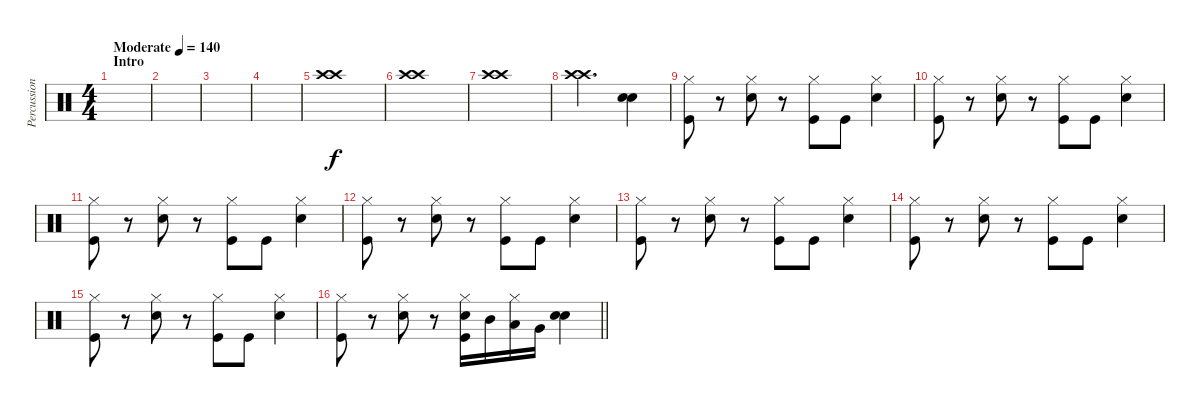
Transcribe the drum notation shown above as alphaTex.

\track ("Percussioni" "Percussion") {instrument percussion}
\staff {score}
\articulation defaults
\ts (4 4)
\section ("" "Intro")
\tempo (140 "Moderate")
\clef neutral
\ks c
|
|
|
|
("Crash high (hit)" "Crash high (hit)").1 |
("Crash high (hit)" "Crash high (hit)").1 |
("Crash high (hit)" "Crash high (hit)").1 |
("Crash high (hit)" "Crash high (hit)").2{d} ("Snare (hit) 2" "Snare (hit) 2").4 |
("Hi-Hat (closed)" "Kick (hit)").8 r.8 ("Hi-Hat (closed)" "Snare (hit) 2").8 r.8 ("Hi-Hat (closed)" "Kick (hit)").8 "Kick (hit)".8 ("Hi-Hat (closed)" "Snare (hit) 2").4 |
("Hi-Hat (closed)" "Kick (hit)").8 r.8 ("Hi-Hat (closed)" "Snare (hit) 2").8 r.8 ("Hi-Hat (closed)" "Kick (hit)").8 "Kick (hit)".8 ("Hi-Hat (closed)" "Snare (hit) 2").4 |
("Hi-Hat (closed)" "Kick (hit)").8 r.8 ("Hi-Hat (closed)" "Snare (hit) 2").8 r.8 ("Hi-Hat (closed)" "Kick (hit)").8 "Kick (hit)".8 ("Hi-Hat (closed)" "Snare (hit) 2").4 |
("Hi-Hat (closed)" "Kick (hit)").8 r.8 ("Hi-Hat (closed)" "Snare (hit) 2").8 r.8 ("Hi-Hat (closed)" "Kick (hit)").8 "Kick (hit)".8 ("Hi-Hat (closed)" "Snare (hit) 2").4 |
("Hi-Hat (closed)" "Kick (hit)").8 r.8 ("Hi-Hat (closed)" "Snare (hit) 2").8 r.8 ("Hi-Hat (closed)" "Kick (hit)").8 "Kick (hit)".8 ("Hi-Hat (closed)" "Snare (hit) 2").4 |
("Hi-Hat (closed)" "Kick (hit)").8 r.8 ("Hi-Hat (closed)" "Snare (hit) 2").8 r.8 ("Hi-Hat (closed)" "Kick (hit)").8 "Kick (hit)".8 ("Hi-Hat (closed)" "Snare (hit) 2").4 |
("Hi-Hat (closed)" "Kick (hit)").8 r.8 ("Hi-Hat (closed)" "Snare (hit) 2").8 r.8 ("Hi-Hat (closed)" "Kick (hit)").8 "Kick (hit)".8 ("Hi-Hat (closed)" "Snare (hit) 2").4 |
\barLineRight lightlight
("Hi-Hat (closed)" "Kick (hit)").8 r.8 ("Hi-Hat (closed)" "Snare (hit) 2").8 r.8 ("Hi-Hat (closed)" "Snare (hit) 2" "Kick (hit)").16 "Mid Tom (hit)".16 ("Hi-Hat (closed)" "Low Tom (hit)").16 "Very Low Tom (hit)".16 ("Snare (hit) 2" "Snare (hit) 2").4
